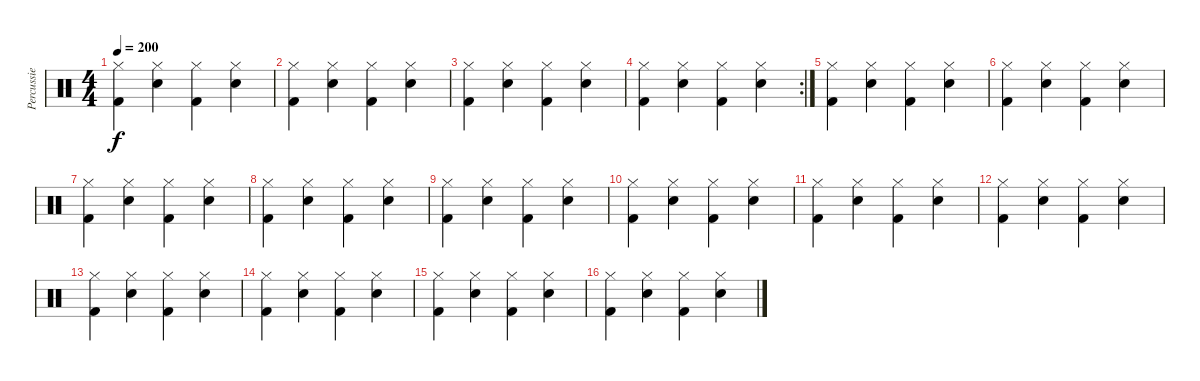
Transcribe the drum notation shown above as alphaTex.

\track ("Percussie" "Percussie") {instrument percussion}
\staff {score}
\articulation defaults
\ts (4 4)
\tempo 200
\clef neutral
\ks c
("Hi-Hat (closed)" "Kick (hit) 2").4{dy f} ("Hi-Hat (closed)" "Snare (hit) 2").4 ("Hi-Hat (closed)" "Kick (hit) 2").4 ("Hi-Hat (closed)" "Snare (hit) 2").4 |
("Hi-Hat (closed)" "Kick (hit) 2").4 ("Hi-Hat (closed)" "Snare (hit) 2").4 ("Hi-Hat (closed)" "Kick (hit) 2").4 ("Hi-Hat (closed)" "Snare (hit) 2").4 |
("Hi-Hat (closed)" "Kick (hit) 2").4 ("Hi-Hat (closed)" "Snare (hit) 2").4 ("Hi-Hat (closed)" "Kick (hit) 2").4 ("Hi-Hat (closed)" "Snare (hit) 2").4 |
\rc 2
("Hi-Hat (closed)" "Kick (hit) 2").4 ("Hi-Hat (closed)" "Snare (hit) 2").4 ("Hi-Hat (closed)" "Kick (hit) 2").4 ("Hi-Hat (closed)" "Snare (hit) 2").4 |
("Hi-Hat (closed)" "Kick (hit) 2").4 ("Hi-Hat (closed)" "Snare (hit) 2").4 ("Hi-Hat (closed)" "Kick (hit) 2").4 ("Hi-Hat (closed)" "Snare (hit) 2").4 |
("Hi-Hat (closed)" "Kick (hit) 2").4 ("Hi-Hat (closed)" "Snare (hit) 2").4 ("Hi-Hat (closed)" "Kick (hit) 2").4 ("Hi-Hat (closed)" "Snare (hit) 2").4 |
("Hi-Hat (closed)" "Kick (hit) 2").4 ("Hi-Hat (closed)" "Snare (hit) 2").4 ("Hi-Hat (closed)" "Kick (hit) 2").4 ("Hi-Hat (closed)" "Snare (hit) 2").4 |
("Hi-Hat (closed)" "Kick (hit) 2").4 ("Hi-Hat (closed)" "Snare (hit) 2").4 ("Hi-Hat (closed)" "Kick (hit) 2").4 ("Hi-Hat (closed)" "Snare (hit) 2").4 |
("Hi-Hat (closed)" "Kick (hit) 2").4 ("Hi-Hat (closed)" "Snare (hit) 2").4 ("Hi-Hat (closed)" "Kick (hit) 2").4 ("Hi-Hat (closed)" "Snare (hit) 2").4 |
("Hi-Hat (closed)" "Kick (hit) 2").4 ("Hi-Hat (closed)" "Snare (hit) 2").4 ("Hi-Hat (closed)" "Kick (hit) 2").4 ("Hi-Hat (closed)" "Snare (hit) 2").4 |
("Hi-Hat (closed)" "Kick (hit) 2").4 ("Hi-Hat (closed)" "Snare (hit) 2").4 ("Hi-Hat (closed)" "Kick (hit) 2").4 ("Hi-Hat (closed)" "Snare (hit) 2").4 |
("Hi-Hat (closed)" "Kick (hit) 2").4 ("Hi-Hat (closed)" "Snare (hit) 2").4 ("Hi-Hat (closed)" "Kick (hit) 2").4 ("Hi-Hat (closed)" "Snare (hit) 2").4 |
("Hi-Hat (closed)" "Kick (hit) 2").4 ("Hi-Hat (closed)" "Snare (hit) 2").4 ("Hi-Hat (closed)" "Kick (hit) 2").4 ("Hi-Hat (closed)" "Snare (hit) 2").4 |
("Hi-Hat (closed)" "Kick (hit) 2").4 ("Hi-Hat (closed)" "Snare (hit) 2").4 ("Hi-Hat (closed)" "Kick (hit) 2").4 ("Hi-Hat (closed)" "Snare (hit) 2").4 |
("Hi-Hat (closed)" "Kick (hit) 2").4 ("Hi-Hat (closed)" "Snare (hit) 2").4 ("Hi-Hat (closed)" "Kick (hit) 2").4 ("Hi-Hat (closed)" "Snare (hit) 2").4 |
("Hi-Hat (closed)" "Kick (hit) 2").4 ("Hi-Hat (closed)" "Snare (hit) 2").4 ("Hi-Hat (closed)" "Kick (hit) 2").4 ("Hi-Hat (closed)" "Snare (hit) 2").4
